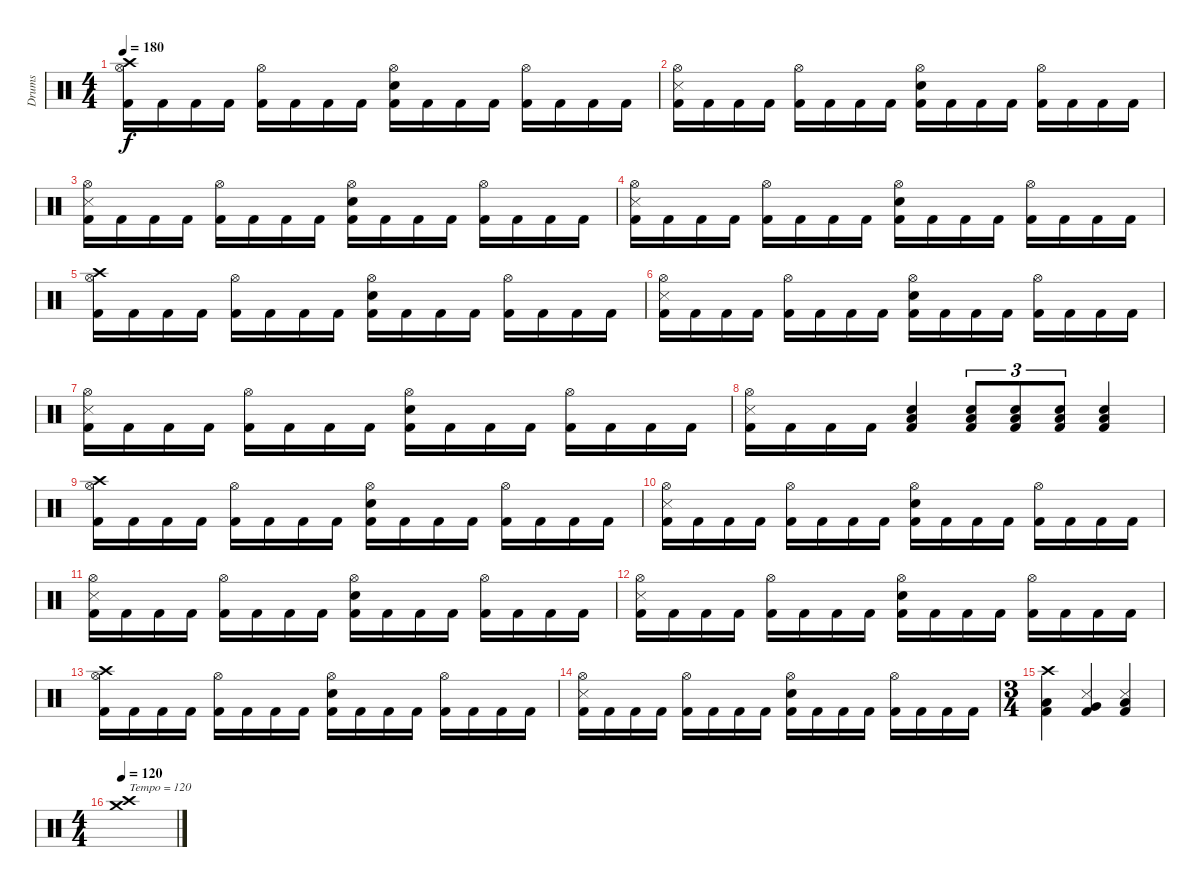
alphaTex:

\track ("Drums" "Drums") {instrument percussion}
\staff {score}
\articulation defaults
\ts (4 4)
\tempo 180
\clef neutral
\ks c
("Crash high (hit)" "Hi-Hat (open)" "Kick (hit) 2").16{dy f} "Kick (hit) 2".16 "Kick (hit) 2".16 "Kick (hit) 2".16 ("Hi-Hat (open)" "Kick (hit) 2").16 "Kick (hit) 2".16 "Kick (hit) 2".16 "Kick (hit) 2".16 ("Hi-Hat (open)" "Electric Snare (hit)" "Kick (hit) 2").16 "Kick (hit) 2".16 "Kick (hit) 2".16 "Kick (hit) 2".16 ("Hi-Hat (open)" "Kick (hit) 2").16 "Kick (hit) 2".16 "Kick (hit) 2".16 "Kick (hit) 2".16 |
("Snare (side stick) 3" "Hi-Hat (open)" "Kick (hit) 2").16 "Kick (hit) 2".16 "Kick (hit) 2".16 "Kick (hit) 2".16 ("Hi-Hat (open)" "Kick (hit) 2").16 "Kick (hit) 2".16 "Kick (hit) 2".16 "Kick (hit) 2".16 ("Hi-Hat (open)" "Electric Snare (hit)" "Kick (hit) 2").16 "Kick (hit) 2".16 "Kick (hit) 2".16 "Kick (hit) 2".16 ("Hi-Hat (open)" "Kick (hit) 2").16 "Kick (hit) 2".16 "Kick (hit) 2".16 "Kick (hit) 2".16 |
("Snare (side stick) 3" "Hi-Hat (open)" "Kick (hit) 2").16 "Kick (hit) 2".16 "Kick (hit) 2".16 "Kick (hit) 2".16 ("Hi-Hat (open)" "Kick (hit) 2").16 "Kick (hit) 2".16 "Kick (hit) 2".16 "Kick (hit) 2".16 ("Hi-Hat (open)" "Electric Snare (hit)" "Kick (hit) 2").16 "Kick (hit) 2".16 "Kick (hit) 2".16 "Kick (hit) 2".16 ("Hi-Hat (open)" "Kick (hit) 2").16 "Kick (hit) 2".16 "Kick (hit) 2".16 "Kick (hit) 2".16 |
("Snare (side stick) 3" "Hi-Hat (open)" "Kick (hit) 2").16 "Kick (hit) 2".16 "Kick (hit) 2".16 "Kick (hit) 2".16 ("Hi-Hat (open)" "Kick (hit) 2").16 "Kick (hit) 2".16 "Kick (hit) 2".16 "Kick (hit) 2".16 ("Hi-Hat (open)" "Electric Snare (hit)" "Kick (hit) 2").16 "Kick (hit) 2".16 "Kick (hit) 2".16 "Kick (hit) 2".16 ("Hi-Hat (open)" "Kick (hit) 2").16 "Kick (hit) 2".16 "Kick (hit) 2".16 "Kick (hit) 2".16 |
("Crash high (hit)" "Hi-Hat (open)" "Kick (hit) 2").16 "Kick (hit) 2".16 "Kick (hit) 2".16 "Kick (hit) 2".16 ("Hi-Hat (open)" "Kick (hit) 2").16 "Kick (hit) 2".16 "Kick (hit) 2".16 "Kick (hit) 2".16 ("Hi-Hat (open)" "Electric Snare (hit)" "Kick (hit) 2").16 "Kick (hit) 2".16 "Kick (hit) 2".16 "Kick (hit) 2".16 ("Hi-Hat (open)" "Kick (hit) 2").16 "Kick (hit) 2".16 "Kick (hit) 2".16 "Kick (hit) 2".16 |
("Snare (side stick) 3" "Hi-Hat (open)" "Kick (hit) 2").16 "Kick (hit) 2".16 "Kick (hit) 2".16 "Kick (hit) 2".16 ("Hi-Hat (open)" "Kick (hit) 2").16 "Kick (hit) 2".16 "Kick (hit) 2".16 "Kick (hit) 2".16 ("Hi-Hat (open)" "Electric Snare (hit)" "Kick (hit) 2").16 "Kick (hit) 2".16 "Kick (hit) 2".16 "Kick (hit) 2".16 ("Hi-Hat (open)" "Kick (hit) 2").16 "Kick (hit) 2".16 "Kick (hit) 2".16 "Kick (hit) 2".16 |
("Snare (side stick) 3" "Hi-Hat (open)" "Kick (hit) 2").16 "Kick (hit) 2".16 "Kick (hit) 2".16 "Kick (hit) 2".16 ("Hi-Hat (open)" "Kick (hit) 2").16 "Kick (hit) 2".16 "Kick (hit) 2".16 "Kick (hit) 2".16 ("Hi-Hat (open)" "Electric Snare (hit)" "Kick (hit) 2").16 "Kick (hit) 2".16 "Kick (hit) 2".16 "Kick (hit) 2".16 ("Hi-Hat (open)" "Kick (hit) 2").16 "Kick (hit) 2".16 "Kick (hit) 2".16 "Kick (hit) 2".16 |
("Snare (side stick) 3" "Hi-Hat (open)" "Kick (hit) 2").16 "Kick (hit) 2".16 "Kick (hit) 2".16 "Kick (hit) 2".16 ("Low Floor Tom (hit)" "Electric Snare (hit)" "Kick (hit) 2").4 ("Low Floor Tom (hit)" "Electric Snare (hit)" "Kick (hit) 2").8{tu (3 2)} ("Low Floor Tom (hit)" "Electric Snare (hit)" "Kick (hit) 2").8{tu (3 2)} ("Low Floor Tom (hit)" "Electric Snare (hit)" "Kick (hit) 2").8{tu (3 2)} ("Low Floor Tom (hit)" "Electric Snare (hit)" "Kick (hit) 2").4 |
("Crash high (hit)" "Hi-Hat (open)" "Kick (hit) 2").16 "Kick (hit) 2".16 "Kick (hit) 2".16 "Kick (hit) 2".16 ("Hi-Hat (open)" "Kick (hit) 2").16 "Kick (hit) 2".16 "Kick (hit) 2".16 "Kick (hit) 2".16 ("Hi-Hat (open)" "Electric Snare (hit)" "Kick (hit) 2").16 "Kick (hit) 2".16 "Kick (hit) 2".16 "Kick (hit) 2".16 ("Hi-Hat (open)" "Kick (hit) 2").16 "Kick (hit) 2".16 "Kick (hit) 2".16 "Kick (hit) 2".16 |
("Snare (side stick) 3" "Hi-Hat (open)" "Kick (hit) 2").16 "Kick (hit) 2".16 "Kick (hit) 2".16 "Kick (hit) 2".16 ("Hi-Hat (open)" "Kick (hit) 2").16 "Kick (hit) 2".16 "Kick (hit) 2".16 "Kick (hit) 2".16 ("Hi-Hat (open)" "Electric Snare (hit)" "Kick (hit) 2").16 "Kick (hit) 2".16 "Kick (hit) 2".16 "Kick (hit) 2".16 ("Hi-Hat (open)" "Kick (hit) 2").16 "Kick (hit) 2".16 "Kick (hit) 2".16 "Kick (hit) 2".16 |
("Snare (side stick) 3" "Hi-Hat (open)" "Kick (hit) 2").16 "Kick (hit) 2".16 "Kick (hit) 2".16 "Kick (hit) 2".16 ("Hi-Hat (open)" "Kick (hit) 2").16 "Kick (hit) 2".16 "Kick (hit) 2".16 "Kick (hit) 2".16 ("Hi-Hat (open)" "Electric Snare (hit)" "Kick (hit) 2").16 "Kick (hit) 2".16 "Kick (hit) 2".16 "Kick (hit) 2".16 ("Hi-Hat (open)" "Kick (hit) 2").16 "Kick (hit) 2".16 "Kick (hit) 2".16 "Kick (hit) 2".16 |
("Snare (side stick) 3" "Hi-Hat (open)" "Kick (hit) 2").16 "Kick (hit) 2".16 "Kick (hit) 2".16 "Kick (hit) 2".16 ("Hi-Hat (open)" "Kick (hit) 2").16 "Kick (hit) 2".16 "Kick (hit) 2".16 "Kick (hit) 2".16 ("Hi-Hat (open)" "Electric Snare (hit)" "Kick (hit) 2").16 "Kick (hit) 2".16 "Kick (hit) 2".16 "Kick (hit) 2".16 ("Hi-Hat (open)" "Kick (hit) 2").16 "Kick (hit) 2".16 "Kick (hit) 2".16 "Kick (hit) 2".16 |
("Crash high (hit)" "Hi-Hat (open)" "Kick (hit) 2").16 "Kick (hit) 2".16 "Kick (hit) 2".16 "Kick (hit) 2".16 ("Hi-Hat (open)" "Kick (hit) 2").16 "Kick (hit) 2".16 "Kick (hit) 2".16 "Kick (hit) 2".16 ("Hi-Hat (open)" "Electric Snare (hit)" "Kick (hit) 2").16 "Kick (hit) 2".16 "Kick (hit) 2".16 "Kick (hit) 2".16 ("Hi-Hat (open)" "Kick (hit) 2").16 "Kick (hit) 2".16 "Kick (hit) 2".16 "Kick (hit) 2".16 |
("Snare (side stick) 3" "Hi-Hat (open)" "Kick (hit) 2").16 "Kick (hit) 2".16 "Kick (hit) 2".16 "Kick (hit) 2".16 ("Hi-Hat (open)" "Kick (hit) 2").16 "Kick (hit) 2".16 "Kick (hit) 2".16 "Kick (hit) 2".16 ("Hi-Hat (open)" "Electric Snare (hit)" "Kick (hit) 2").16 "Kick (hit) 2".16 "Kick (hit) 2".16 "Kick (hit) 2".16 ("Hi-Hat (open)" "Kick (hit) 2").16 "Kick (hit) 2".16 "Kick (hit) 2".16 "Kick (hit) 2".16 |
\ts (3 4)
("Crash high (hit)" "Low Tom (hit)" "Kick (hit) 2").4 ("Snare (side stick) 3" "Very Low Tom (hit)" "Kick (hit) 2").4 ("Snare (side stick) 3" "Low Floor Tom (hit)" "Kick (hit) 2").4 |
\ts (4 4)
\tempo 120
("Crash high (hit)" "Crash medium (hit)").1{txt "Tempo = 120"}
